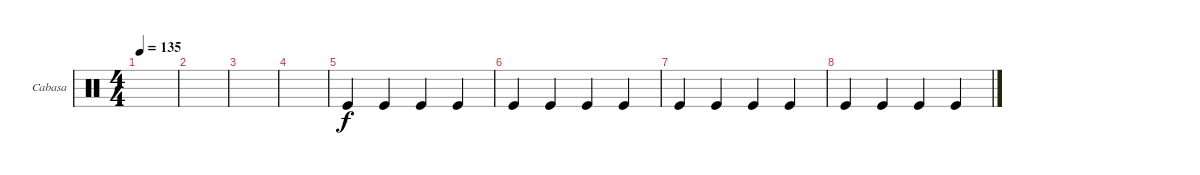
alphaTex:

\defaultSystemsLayout 4
\bracketExtendMode groupsimilarinstruments
\firstSystemTrackNameOrientation horizontal
\otherSystemsTrackNameOrientation horizontal
\track ("Cabasa" "Cabasa") {instrument percussion}
\staff {score}
\articulation defaults
\ts (4 4)
\tempo 135
\clef neutral
\scale
0.333333
\ks c
|
\scale
0.333333 |
\scale
0.333333 |
\scale
0.333333 |
\scale
0.333333 "Kick (hit)".4 "Kick (hit)".4 "Kick (hit)".4 "Kick (hit)".4 |
\scale
0.333333 "Kick (hit)".4 "Kick (hit)".4 "Kick (hit)".4 "Kick (hit)".4 |
\scale
0.333333 "Kick (hit)".4 "Kick (hit)".4 "Kick (hit)".4 "Kick (hit)".4 |
\scale
0.333333 "Kick (hit)".4 "Kick (hit)".4 "Kick (hit)".4 "Kick (hit)".4 |
\scale
0.333333 |
\scale
0.333333 |
\scale
0.333333 |
\scale
0.333333 |
\scale
0.333333 |
\scale
0.333333 |
\scale
0.333333 |
\scale
0.333333
